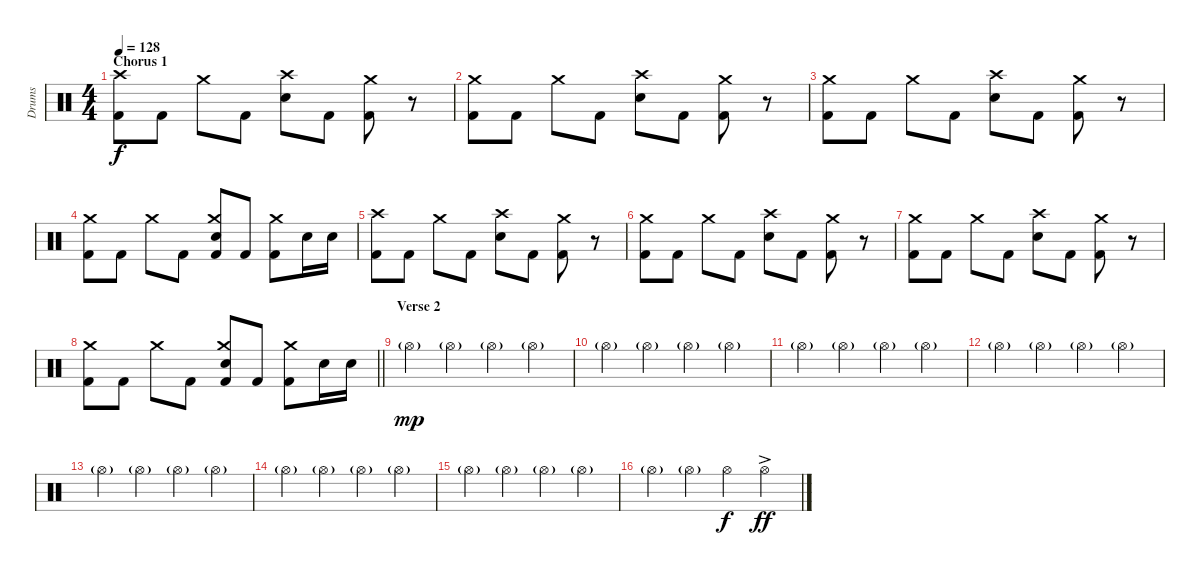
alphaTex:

\track ("Drums" "Drums") {instrument percussion}
\staff {score}
\articulation defaults
\ts (4 4)
\section ("" "Chorus 1")
\tempo 128
\clef neutral
\ks c
("Crash high (hit)" "Kick (hit) 2").8{dy f} "Kick (hit) 2".8 "Crash medium (hit)".8 "Kick (hit) 2".8 ("Crash high (hit)" "Electric Snare (hit)").8 "Kick (hit) 2".8 ("Crash medium (hit)" "Kick (hit) 2").8 r.8 |
("Crash medium (hit)" "Kick (hit) 2").8 "Kick (hit) 2".8 "Crash medium (hit)".8 "Kick (hit) 2".8 ("Crash high (hit)" "Electric Snare (hit)").8 "Kick (hit) 2".8 ("Crash medium (hit)" "Kick (hit) 2").8 r.8 |
("Crash medium (hit)" "Kick (hit) 2").8 "Kick (hit) 2".8 "Crash medium (hit)".8 "Kick (hit) 2".8 ("Crash high (hit)" "Electric Snare (hit)").8 "Kick (hit) 2".8 ("Crash medium (hit)" "Kick (hit) 2").8 r.8 |
("Crash medium (hit)" "Kick (hit) 2").8 "Kick (hit) 2".8 "Crash medium (hit)".8 "Kick (hit) 2".8 ("Crash medium (hit)" "Electric Snare (hit)" "Kick (hit) 2").8 "Kick (hit) 2".8 ("Crash medium (hit)" "Kick (hit) 2").8 "Electric Snare (hit)".16 "Electric Snare (hit)".16 |
("Crash high (hit)" "Kick (hit) 2").8 "Kick (hit) 2".8 "Crash medium (hit)".8 "Kick (hit) 2".8 ("Crash high (hit)" "Electric Snare (hit)").8 "Kick (hit) 2".8 ("Crash medium (hit)" "Kick (hit) 2").8 r.8 |
("Crash medium (hit)" "Kick (hit) 2").8 "Kick (hit) 2".8 "Crash medium (hit)".8 "Kick (hit) 2".8 ("Crash high (hit)" "Electric Snare (hit)").8 "Kick (hit) 2".8 ("Crash medium (hit)" "Kick (hit) 2").8 r.8 |
("Crash medium (hit)" "Kick (hit) 2").8 "Kick (hit) 2".8 "Crash medium (hit)".8 "Kick (hit) 2".8 ("Crash high (hit)" "Electric Snare (hit)").8 "Kick (hit) 2".8 ("Crash medium (hit)" "Kick (hit) 2").8 r.8 |
\barLineRight lightlight
("Crash medium (hit)" "Kick (hit) 2").8 "Kick (hit) 2".8 "Crash medium (hit)".8 "Kick (hit) 2".8 ("Crash medium (hit)" "Electric Snare (hit)" "Kick (hit) 2").8 "Kick (hit) 2".8 ("Crash medium (hit)" "Kick (hit) 2").8 "Electric Snare (hit)".16 "Electric Snare (hit)".16 |
\section ("" "Verse 2")
"Hi-Hat (open)"{g}.4{dy mp} "Hi-Hat (open)"{g}.4 "Hi-Hat (open)"{g}.4 "Hi-Hat (open)"{g}.4 |
"Hi-Hat (open)"{g}.4 "Hi-Hat (open)"{g}.4 "Hi-Hat (open)"{g}.4 "Hi-Hat (open)"{g}.4 |
"Hi-Hat (open)"{g}.4 "Hi-Hat (open)"{g}.4 "Hi-Hat (open)"{g}.4 "Hi-Hat (open)"{g}.4 |
"Hi-Hat (open)"{g}.4 "Hi-Hat (open)"{g}.4 "Hi-Hat (open)"{g}.4 "Hi-Hat (open)"{g}.4 |
"Hi-Hat (open)"{g}.4 "Hi-Hat (open)"{g}.4 "Hi-Hat (open)"{g}.4 "Hi-Hat (open)"{g}.4 |
"Hi-Hat (open)"{g}.4 "Hi-Hat (open)"{g}.4 "Hi-Hat (open)"{g}.4 "Hi-Hat (open)"{g}.4 |
"Hi-Hat (open)"{g}.4 "Hi-Hat (open)"{g}.4 "Hi-Hat (open)"{g}.4 "Hi-Hat (open)"{g}.4 |
"Hi-Hat (open)"{g}.4 "Hi-Hat (open)"{g}.4 "Hi-Hat (open)".4{dy f} "Hi-Hat (open)"{ac}.4{dy ff}
